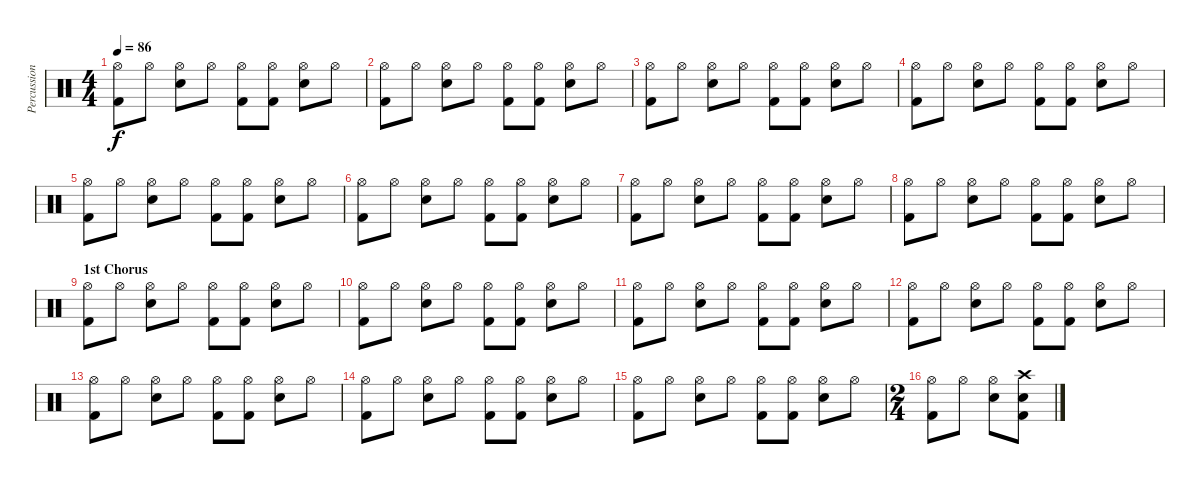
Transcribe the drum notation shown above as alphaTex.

\track ("Percussion" "Percussion") {instrument percussion}
\staff {score}
\articulation defaults
\ts (4 4)
\tempo 86
\clef neutral
\ks c
("Hi-Hat (open)" "Kick (hit) 2").8{dy f} "Hi-Hat (open)".8 ("Hi-Hat (open)" "Snare (hit) 2").8 "Hi-Hat (open)".8 ("Hi-Hat (open)" "Kick (hit) 2").8 ("Hi-Hat (open)" "Kick (hit) 2").8 ("Hi-Hat (open)" "Snare (hit) 2").8 "Hi-Hat (open)".8 |
("Hi-Hat (open)" "Kick (hit) 2").8 "Hi-Hat (open)".8 ("Hi-Hat (open)" "Snare (hit) 2").8 "Hi-Hat (open)".8 ("Hi-Hat (open)" "Kick (hit) 2").8 ("Hi-Hat (open)" "Kick (hit) 2").8 ("Hi-Hat (open)" "Snare (hit) 2").8 "Hi-Hat (open)".8 |
("Hi-Hat (open)" "Kick (hit) 2").8 "Hi-Hat (open)".8 ("Hi-Hat (open)" "Snare (hit) 2").8 "Hi-Hat (open)".8 ("Hi-Hat (open)" "Kick (hit) 2").8 ("Hi-Hat (open)" "Kick (hit) 2").8 ("Hi-Hat (open)" "Snare (hit) 2").8 "Hi-Hat (open)".8 |
("Hi-Hat (open)" "Kick (hit) 2").8 "Hi-Hat (open)".8 ("Hi-Hat (open)" "Snare (hit) 2").8 "Hi-Hat (open)".8 ("Hi-Hat (open)" "Kick (hit) 2").8 ("Hi-Hat (open)" "Kick (hit) 2").8 ("Hi-Hat (open)" "Snare (hit) 2").8 "Hi-Hat (open)".8 |
("Hi-Hat (open)" "Kick (hit) 2").8 "Hi-Hat (open)".8 ("Hi-Hat (open)" "Snare (hit) 2").8 "Hi-Hat (open)".8 ("Hi-Hat (open)" "Kick (hit) 2").8 ("Hi-Hat (open)" "Kick (hit) 2").8 ("Hi-Hat (open)" "Snare (hit) 2").8 "Hi-Hat (open)".8 |
("Hi-Hat (open)" "Kick (hit) 2").8 "Hi-Hat (open)".8 ("Hi-Hat (open)" "Snare (hit) 2").8 "Hi-Hat (open)".8 ("Hi-Hat (open)" "Kick (hit) 2").8 ("Hi-Hat (open)" "Kick (hit) 2").8 ("Hi-Hat (open)" "Snare (hit) 2").8 "Hi-Hat (open)".8 |
("Hi-Hat (open)" "Kick (hit) 2").8 "Hi-Hat (open)".8 ("Hi-Hat (open)" "Snare (hit) 2").8 "Hi-Hat (open)".8 ("Hi-Hat (open)" "Kick (hit) 2").8 ("Hi-Hat (open)" "Kick (hit) 2").8 ("Hi-Hat (open)" "Snare (hit) 2").8 "Hi-Hat (open)".8 |
("Hi-Hat (open)" "Kick (hit) 2").8 "Hi-Hat (open)".8 ("Hi-Hat (open)" "Snare (hit) 2").8 "Hi-Hat (open)".8 ("Hi-Hat (open)" "Kick (hit) 2").8 ("Hi-Hat (open)" "Kick (hit) 2").8 ("Hi-Hat (open)" "Snare (hit) 2").8 "Hi-Hat (open)".8 |
\section ("" "1st Chorus")
("Hi-Hat (open)" "Kick (hit) 2").8 "Hi-Hat (open)".8 ("Hi-Hat (open)" "Snare (hit) 2").8 "Hi-Hat (open)".8 ("Hi-Hat (open)" "Kick (hit) 2").8 ("Hi-Hat (open)" "Kick (hit) 2").8 ("Hi-Hat (open)" "Snare (hit) 2").8 "Hi-Hat (open)".8 |
("Hi-Hat (open)" "Kick (hit) 2").8 "Hi-Hat (open)".8 ("Hi-Hat (open)" "Snare (hit) 2").8 "Hi-Hat (open)".8 ("Hi-Hat (open)" "Kick (hit) 2").8 ("Hi-Hat (open)" "Kick (hit) 2").8 ("Hi-Hat (open)" "Snare (hit) 2").8 "Hi-Hat (open)".8 |
("Hi-Hat (open)" "Kick (hit) 2").8 "Hi-Hat (open)".8 ("Hi-Hat (open)" "Snare (hit) 2").8 "Hi-Hat (open)".8 ("Hi-Hat (open)" "Kick (hit) 2").8 ("Hi-Hat (open)" "Kick (hit) 2").8 ("Hi-Hat (open)" "Snare (hit) 2").8 "Hi-Hat (open)".8 |
("Hi-Hat (open)" "Kick (hit) 2").8 "Hi-Hat (open)".8 ("Hi-Hat (open)" "Snare (hit) 2").8 "Hi-Hat (open)".8 ("Hi-Hat (open)" "Kick (hit) 2").8 ("Hi-Hat (open)" "Kick (hit) 2").8 ("Hi-Hat (open)" "Snare (hit) 2").8 "Hi-Hat (open)".8 |
("Hi-Hat (open)" "Kick (hit) 2").8 "Hi-Hat (open)".8 ("Hi-Hat (open)" "Snare (hit) 2").8 "Hi-Hat (open)".8 ("Hi-Hat (open)" "Kick (hit) 2").8 ("Hi-Hat (open)" "Kick (hit) 2").8 ("Hi-Hat (open)" "Snare (hit) 2").8 "Hi-Hat (open)".8 |
("Hi-Hat (open)" "Kick (hit) 2").8 "Hi-Hat (open)".8 ("Hi-Hat (open)" "Snare (hit) 2").8 "Hi-Hat (open)".8 ("Hi-Hat (open)" "Kick (hit) 2").8 ("Hi-Hat (open)" "Kick (hit) 2").8 ("Hi-Hat (open)" "Snare (hit) 2").8 "Hi-Hat (open)".8 |
("Hi-Hat (open)" "Kick (hit) 2").8 "Hi-Hat (open)".8 ("Hi-Hat (open)" "Snare (hit) 2").8 "Hi-Hat (open)".8 ("Hi-Hat (open)" "Kick (hit) 2").8 ("Hi-Hat (open)" "Kick (hit) 2").8 ("Hi-Hat (open)" "Snare (hit) 2").8 "Hi-Hat (open)".8 |
\ts (2 4)
("Hi-Hat (open)" "Kick (hit) 2").8 "Hi-Hat (open)".8 ("Hi-Hat (open)" "Snare (hit) 2").8 ("Crash high (hit)" "Kick (hit) 2" "Snare (hit) 2").8
